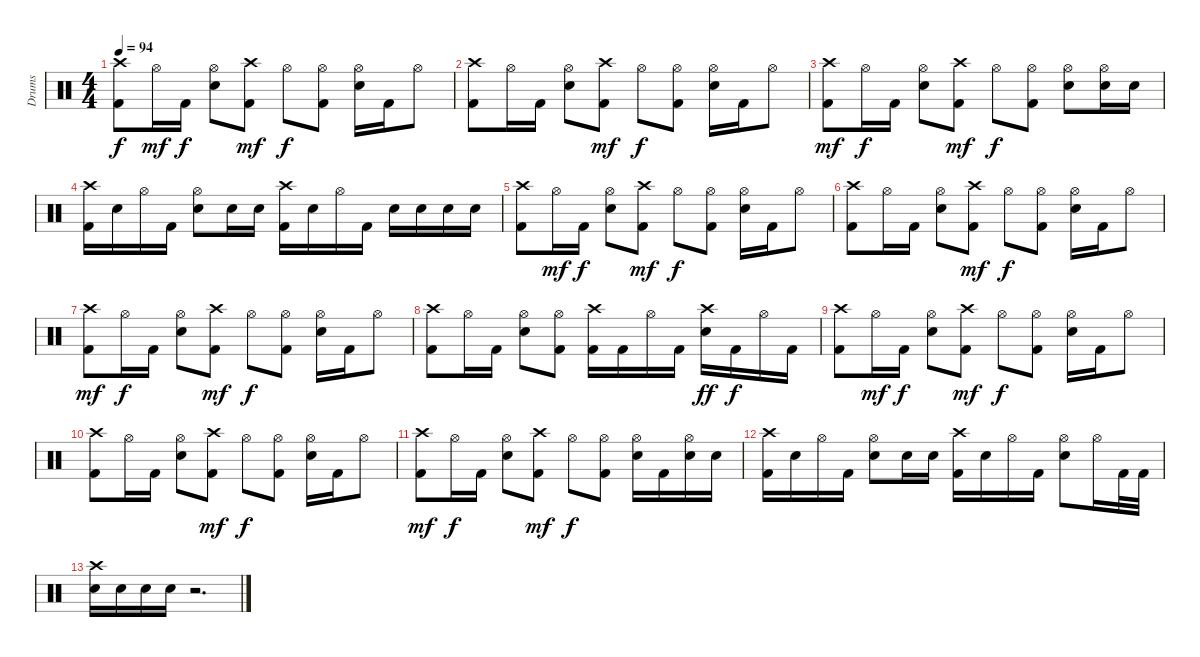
\track ("Drums" "Drums") {instrument percussion}
\staff {score}
\articulation defaults
\ts (4 4)
\tempo 94
\clef neutral
\ks c
("Crash high (hit)" "Kick (hit) 2").8{dy f} "Hi-Hat (open)".16{dy mf} "Kick (hit) 2".16{dy f} ("Hi-Hat (open)" "Electric Snare (hit)").8 ("Crash high (hit)" "Kick (hit) 2").8{dy mf} "Hi-Hat (open)".8{dy f} ("Hi-Hat (open)" "Kick (hit) 2").8 ("Hi-Hat (open)" "Electric Snare (hit)").16 "Kick (hit) 2".16 "Hi-Hat (open)".8 |
("Crash high (hit)" "Kick (hit) 2").8 "Hi-Hat (open)".16 "Kick (hit) 2".16 ("Hi-Hat (open)" "Electric Snare (hit)").8 ("Crash high (hit)" "Kick (hit) 2").8{dy mf} "Hi-Hat (open)".8{dy f} ("Hi-Hat (open)" "Kick (hit) 2").8 ("Hi-Hat (open)" "Electric Snare (hit)").16 "Kick (hit) 2".16 "Hi-Hat (open)".8 |
("Crash high (hit)" "Kick (hit) 2").8{dy mf} "Hi-Hat (open)".16{dy f} "Kick (hit) 2".16 ("Hi-Hat (open)" "Electric Snare (hit)").8 ("Crash high (hit)" "Kick (hit) 2").8{dy mf} "Hi-Hat (open)".8{dy f} ("Hi-Hat (open)" "Kick (hit) 2").8 ("Hi-Hat (open)" "Electric Snare (hit)").8 ("Hi-Hat (open)" "Electric Snare (hit)").16 "Electric Snare (hit)".16 |
("Crash high (hit)" "Kick (hit) 2").16 "Electric Snare (hit)".16 "Hi-Hat (open)".16 "Kick (hit) 2".16 ("Hi-Hat (open)" "Electric Snare (hit)").8 "Electric Snare (hit)".16 "Electric Snare (hit)".16 ("Crash high (hit)" "Kick (hit) 2").16 "Electric Snare (hit)".16 "Hi-Hat (open)".16 "Kick (hit) 2".16 "Electric Snare (hit)".16 "Electric Snare (hit)".16 "Electric Snare (hit)".16 "Electric Snare (hit)".16 |
("Crash high (hit)" "Kick (hit) 2").8 "Hi-Hat (open)".16{dy mf} "Kick (hit) 2".16{dy f} ("Hi-Hat (open)" "Electric Snare (hit)").8 ("Crash high (hit)" "Kick (hit) 2").8{dy mf} "Hi-Hat (open)".8{dy f} ("Hi-Hat (open)" "Kick (hit) 2").8 ("Hi-Hat (open)" "Electric Snare (hit)").16 "Kick (hit) 2".16 "Hi-Hat (open)".8 |
("Crash high (hit)" "Kick (hit) 2").8 "Hi-Hat (open)".16 "Kick (hit) 2".16 ("Hi-Hat (open)" "Electric Snare (hit)").8 ("Crash high (hit)" "Kick (hit) 2").8{dy mf} "Hi-Hat (open)".8{dy f} ("Hi-Hat (open)" "Kick (hit) 2").8 ("Hi-Hat (open)" "Electric Snare (hit)").16 "Kick (hit) 2".16 "Hi-Hat (open)".8 |
("Crash high (hit)" "Kick (hit) 2").8{dy mf} "Hi-Hat (open)".16{dy f} "Kick (hit) 2".16 ("Hi-Hat (open)" "Electric Snare (hit)").8 ("Crash high (hit)" "Kick (hit) 2").8{dy mf} "Hi-Hat (open)".8{dy f} ("Hi-Hat (open)" "Kick (hit) 2").8 ("Hi-Hat (open)" "Electric Snare (hit)").16 "Kick (hit) 2".16 "Hi-Hat (open)".8 |
("Crash high (hit)" "Kick (hit) 2").8 "Hi-Hat (open)".16 "Kick (hit) 2".16 ("Hi-Hat (open)" "Electric Snare (hit)").8 ("Hi-Hat (open)" "Kick (hit) 2").8 ("Crash high (hit)" "Kick (hit) 2").16 "Kick (hit) 2".16 "Hi-Hat (open)".16 "Kick (hit) 2".16 ("Crash high (hit)" "Electric Snare (hit)").16{dy ff} "Kick (hit) 2".16{dy f} "Hi-Hat (open)".16 "Kick (hit) 2".16 |
("Crash high (hit)" "Kick (hit) 2").8 "Hi-Hat (open)".16{dy mf} "Kick (hit) 2".16{dy f} ("Hi-Hat (open)" "Electric Snare (hit)").8 ("Crash high (hit)" "Kick (hit) 2").8{dy mf} "Hi-Hat (open)".8{dy f} ("Hi-Hat (open)" "Kick (hit) 2").8 ("Hi-Hat (open)" "Electric Snare (hit)").16 "Kick (hit) 2".16 "Hi-Hat (open)".8 |
("Crash high (hit)" "Kick (hit) 2").8 "Hi-Hat (open)".16 "Kick (hit) 2".16 ("Hi-Hat (open)" "Electric Snare (hit)").8 ("Crash high (hit)" "Kick (hit) 2").8{dy mf} "Hi-Hat (open)".8{dy f} ("Hi-Hat (open)" "Kick (hit) 2").8 ("Hi-Hat (open)" "Electric Snare (hit)").16 "Kick (hit) 2".16 "Hi-Hat (open)".8 |
("Crash high (hit)" "Kick (hit) 2").8{dy mf} "Hi-Hat (open)".16{dy f} "Kick (hit) 2".16 ("Hi-Hat (open)" "Electric Snare (hit)").8 ("Crash high (hit)" "Kick (hit) 2").8{dy mf} "Hi-Hat (open)".8{dy f} ("Hi-Hat (open)" "Kick (hit) 2").8 ("Hi-Hat (open)" "Electric Snare (hit)").16 "Kick (hit) 2".16 ("Hi-Hat (open)" "Electric Snare (hit)").16 "Electric Snare (hit)".16 |
("Crash high (hit)" "Kick (hit) 2").16 "Electric Snare (hit)".16 "Hi-Hat (open)".16 "Kick (hit) 2".16 ("Hi-Hat (open)" "Electric Snare (hit)").8 "Electric Snare (hit)".16 "Electric Snare (hit)".16 ("Crash high (hit)" "Kick (hit) 2").16 "Electric Snare (hit)".16 "Hi-Hat (open)".16 "Kick (hit) 2".16 ("Hi-Hat (open)" "Electric Snare (hit)").8 "Hi-Hat (open)".16 "Kick (hit) 2".32 "Kick (hit) 2".32 |
("Crash high (hit)" "Electric Snare (hit)").16 "Electric Snare (hit)".16 "Electric Snare (hit)".16 "Electric Snare (hit)".16 r.2{d}
